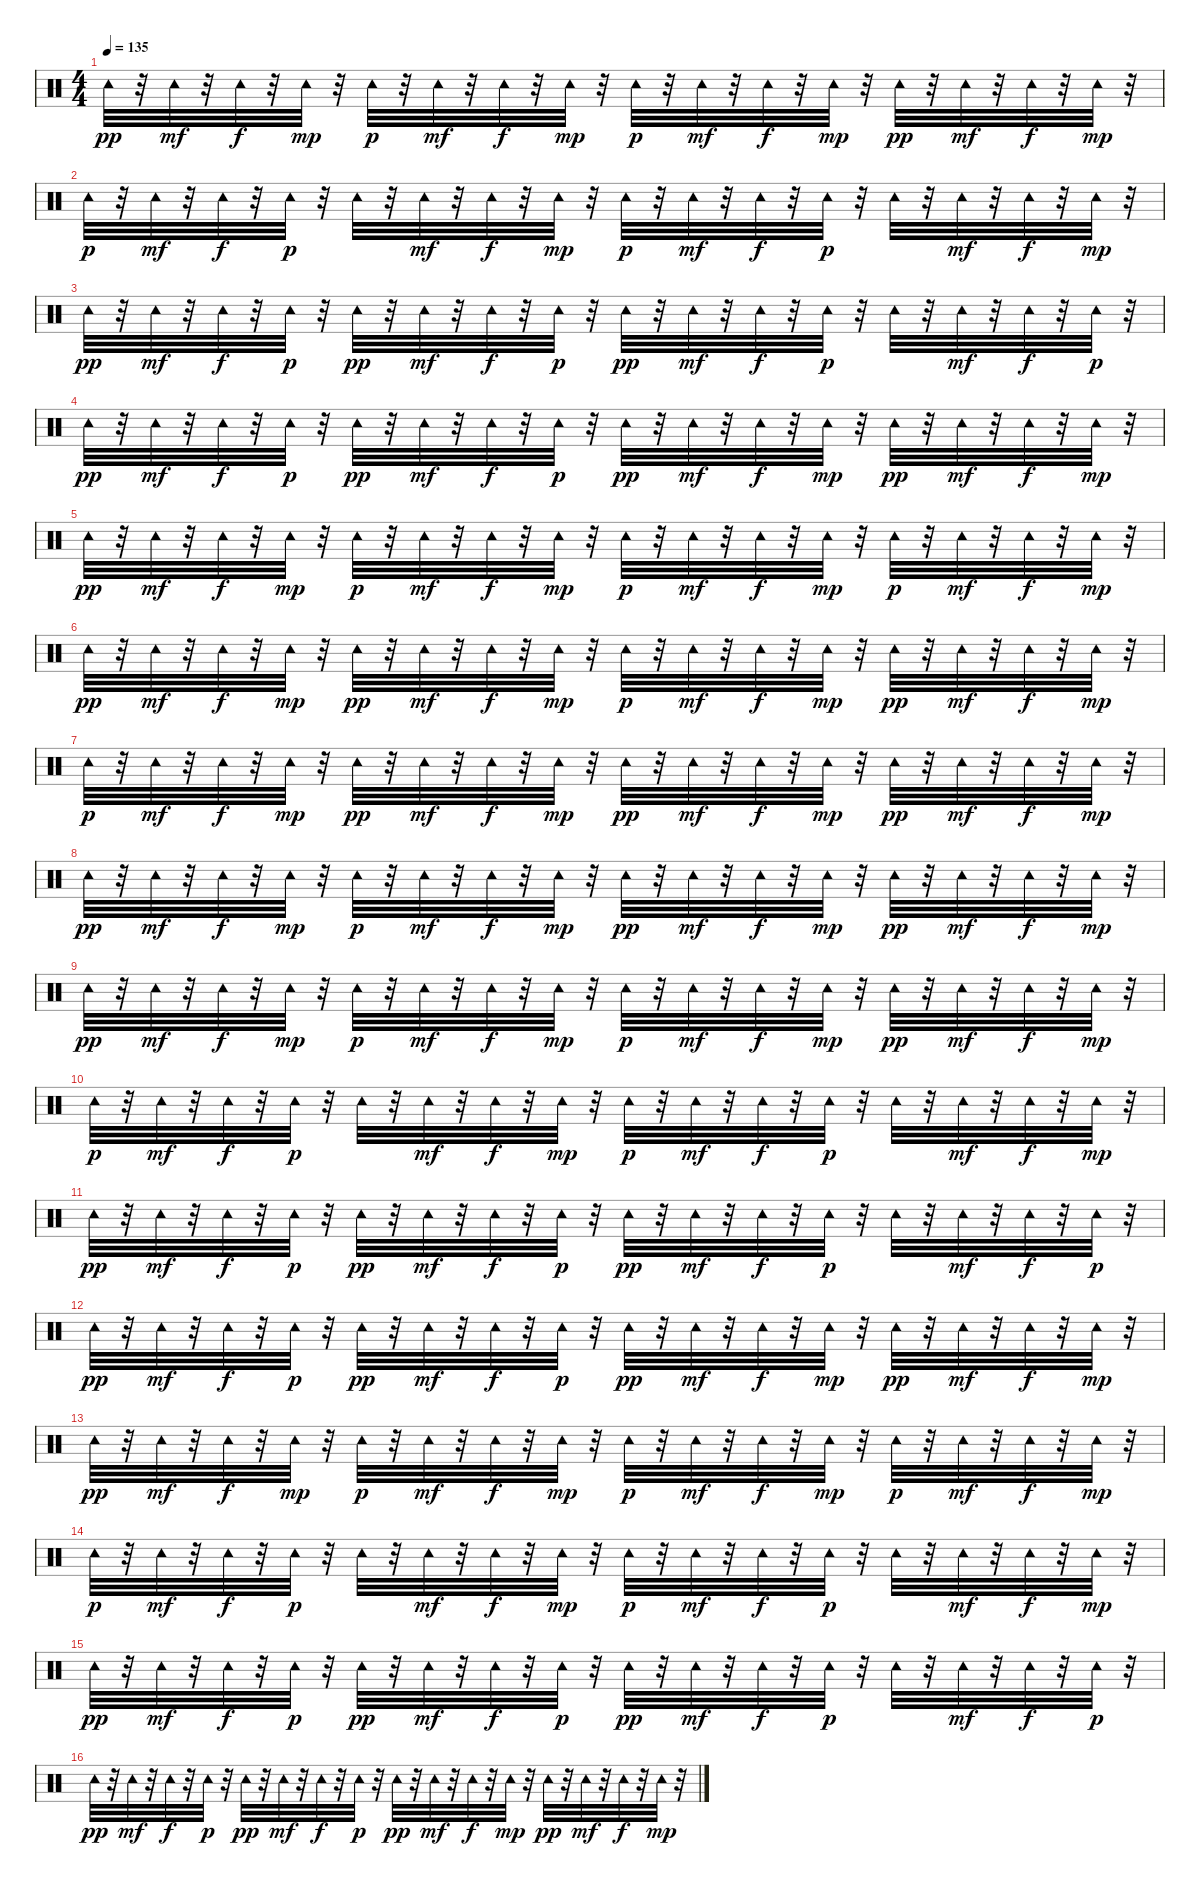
\track "" {instrument percussion}
\staff {score}
\articulation defaults
\ts (4 4)
\tempo 135
\clef neutral
\ks c "Tambourine (hit)".32{dy pp}
r.32 "Tambourine (hit)".32{dy mf} r.32 "Tambourine (hit)".32{dy f} r.32 "Tambourine (hit)".32{dy mp} r.32 "Tambourine (hit)".32{dy p} r.32 "Tambourine (hit)".32{dy mf} r.32 "Tambourine (hit)".32{dy f} r.32 "Tambourine (hit)".32{dy mp} r.32 "Tambourine (hit)".32{dy p} r.32 "Tambourine (hit)".32{dy mf} r.32 "Tambourine (hit)".32{dy f} r.32 "Tambourine (hit)".32{dy mp} r.32 "Tambourine (hit)".32{dy pp} r.32 "Tambourine (hit)".32{dy mf} r.32 "Tambourine (hit)".32{dy f} r.32 "Tambourine (hit)".32{dy mp} r.32 |
"Tambourine (hit)".32{dy p} r.32 "Tambourine (hit)".32{dy mf} r.32 "Tambourine (hit)".32{dy f} r.32 "Tambourine (hit)".32{dy p} r.32 "Tambourine (hit)".32 r.32 "Tambourine (hit)".32{dy mf} r.32 "Tambourine (hit)".32{dy f} r.32 "Tambourine (hit)".32{dy mp} r.32 "Tambourine (hit)".32{dy p} r.32 "Tambourine (hit)".32{dy mf} r.32 "Tambourine (hit)".32{dy f} r.32 "Tambourine (hit)".32{dy p} r.32 "Tambourine (hit)".32 r.32 "Tambourine (hit)".32{dy mf} r.32 "Tambourine (hit)".32{dy f} r.32 "Tambourine (hit)".32{dy mp} r.32 |
"Tambourine (hit)".32{dy pp} r.32 "Tambourine (hit)".32{dy mf} r.32 "Tambourine (hit)".32{dy f} r.32 "Tambourine (hit)".32{dy p} r.32 "Tambourine (hit)".32{dy pp} r.32 "Tambourine (hit)".32{dy mf} r.32 "Tambourine (hit)".32{dy f} r.32 "Tambourine (hit)".32{dy p} r.32 "Tambourine (hit)".32{dy pp} r.32 "Tambourine (hit)".32{dy mf} r.32 "Tambourine (hit)".32{dy f} r.32 "Tambourine (hit)".32{dy p} r.32 "Tambourine (hit)".32 r.32 "Tambourine (hit)".32{dy mf} r.32 "Tambourine (hit)".32{dy f} r.32 "Tambourine (hit)".32{dy p} r.32 |
"Tambourine (hit)".32{dy pp} r.32 "Tambourine (hit)".32{dy mf} r.32 "Tambourine (hit)".32{dy f} r.32 "Tambourine (hit)".32{dy p} r.32 "Tambourine (hit)".32{dy pp} r.32 "Tambourine (hit)".32{dy mf} r.32 "Tambourine (hit)".32{dy f} r.32 "Tambourine (hit)".32{dy p} r.32 "Tambourine (hit)".32{dy pp} r.32 "Tambourine (hit)".32{dy mf} r.32 "Tambourine (hit)".32{dy f} r.32 "Tambourine (hit)".32{dy mp} r.32 "Tambourine (hit)".32{dy pp} r.32 "Tambourine (hit)".32{dy mf} r.32 "Tambourine (hit)".32{dy f} r.32 "Tambourine (hit)".32{dy mp} r.32 |
"Tambourine (hit)".32{dy pp} r.32 "Tambourine (hit)".32{dy mf} r.32 "Tambourine (hit)".32{dy f} r.32 "Tambourine (hit)".32{dy mp} r.32 "Tambourine (hit)".32{dy p} r.32 "Tambourine (hit)".32{dy mf} r.32 "Tambourine (hit)".32{dy f} r.32 "Tambourine (hit)".32{dy mp} r.32 "Tambourine (hit)".32{dy p} r.32 "Tambourine (hit)".32{dy mf} r.32 "Tambourine (hit)".32{dy f} r.32 "Tambourine (hit)".32{dy mp} r.32 "Tambourine (hit)".32{dy p} r.32 "Tambourine (hit)".32{dy mf} r.32 "Tambourine (hit)".32{dy f} r.32 "Tambourine (hit)".32{dy mp} r.32 |
"Tambourine (hit)".32{dy pp} r.32 "Tambourine (hit)".32{dy mf} r.32 "Tambourine (hit)".32{dy f} r.32 "Tambourine (hit)".32{dy mp} r.32 "Tambourine (hit)".32{dy pp} r.32 "Tambourine (hit)".32{dy mf} r.32 "Tambourine (hit)".32{dy f} r.32 "Tambourine (hit)".32{dy mp} r.32 "Tambourine (hit)".32{dy p} r.32 "Tambourine (hit)".32{dy mf} r.32 "Tambourine (hit)".32{dy f} r.32 "Tambourine (hit)".32{dy mp} r.32 "Tambourine (hit)".32{dy pp} r.32 "Tambourine (hit)".32{dy mf} r.32 "Tambourine (hit)".32{dy f} r.32 "Tambourine (hit)".32{dy mp} r.32 |
"Tambourine (hit)".32{dy p} r.32 "Tambourine (hit)".32{dy mf} r.32 "Tambourine (hit)".32{dy f} r.32 "Tambourine (hit)".32{dy mp} r.32 "Tambourine (hit)".32{dy pp} r.32 "Tambourine (hit)".32{dy mf} r.32 "Tambourine (hit)".32{dy f} r.32 "Tambourine (hit)".32{dy mp} r.32 "Tambourine (hit)".32{dy pp} r.32 "Tambourine (hit)".32{dy mf} r.32 "Tambourine (hit)".32{dy f} r.32 "Tambourine (hit)".32{dy mp} r.32 "Tambourine (hit)".32{dy pp} r.32 "Tambourine (hit)".32{dy mf} r.32 "Tambourine (hit)".32{dy f} r.32 "Tambourine (hit)".32{dy mp} r.32 |
"Tambourine (hit)".32{dy pp} r.32 "Tambourine (hit)".32{dy mf} r.32 "Tambourine (hit)".32{dy f} r.32 "Tambourine (hit)".32{dy mp} r.32 "Tambourine (hit)".32{dy p} r.32 "Tambourine (hit)".32{dy mf} r.32 "Tambourine (hit)".32{dy f} r.32 "Tambourine (hit)".32{dy mp} r.32 "Tambourine (hit)".32{dy pp} r.32 "Tambourine (hit)".32{dy mf} r.32 "Tambourine (hit)".32{dy f} r.32 "Tambourine (hit)".32{dy mp} r.32 "Tambourine (hit)".32{dy pp} r.32 "Tambourine (hit)".32{dy mf} r.32 "Tambourine (hit)".32{dy f} r.32 "Tambourine (hit)".32{dy mp} r.32 |
"Tambourine (hit)".32{dy pp} r.32 "Tambourine (hit)".32{dy mf} r.32 "Tambourine (hit)".32{dy f} r.32 "Tambourine (hit)".32{dy mp} r.32 "Tambourine (hit)".32{dy p} r.32 "Tambourine (hit)".32{dy mf} r.32 "Tambourine (hit)".32{dy f} r.32 "Tambourine (hit)".32{dy mp} r.32 "Tambourine (hit)".32{dy p} r.32 "Tambourine (hit)".32{dy mf} r.32 "Tambourine (hit)".32{dy f} r.32 "Tambourine (hit)".32{dy mp} r.32 "Tambourine (hit)".32{dy pp} r.32 "Tambourine (hit)".32{dy mf} r.32 "Tambourine (hit)".32{dy f} r.32 "Tambourine (hit)".32{dy mp} r.32 |
"Tambourine (hit)".32{dy p} r.32 "Tambourine (hit)".32{dy mf} r.32 "Tambourine (hit)".32{dy f} r.32 "Tambourine (hit)".32{dy p} r.32 "Tambourine (hit)".32 r.32 "Tambourine (hit)".32{dy mf} r.32 "Tambourine (hit)".32{dy f} r.32 "Tambourine (hit)".32{dy mp} r.32 "Tambourine (hit)".32{dy p} r.32 "Tambourine (hit)".32{dy mf} r.32 "Tambourine (hit)".32{dy f} r.32 "Tambourine (hit)".32{dy p} r.32 "Tambourine (hit)".32 r.32 "Tambourine (hit)".32{dy mf} r.32 "Tambourine (hit)".32{dy f} r.32 "Tambourine (hit)".32{dy mp} r.32 |
"Tambourine (hit)".32{dy pp} r.32 "Tambourine (hit)".32{dy mf} r.32 "Tambourine (hit)".32{dy f} r.32 "Tambourine (hit)".32{dy p} r.32 "Tambourine (hit)".32{dy pp} r.32 "Tambourine (hit)".32{dy mf} r.32 "Tambourine (hit)".32{dy f} r.32 "Tambourine (hit)".32{dy p} r.32 "Tambourine (hit)".32{dy pp} r.32 "Tambourine (hit)".32{dy mf} r.32 "Tambourine (hit)".32{dy f} r.32 "Tambourine (hit)".32{dy p} r.32 "Tambourine (hit)".32 r.32 "Tambourine (hit)".32{dy mf} r.32 "Tambourine (hit)".32{dy f} r.32 "Tambourine (hit)".32{dy p} r.32 |
"Tambourine (hit)".32{dy pp} r.32 "Tambourine (hit)".32{dy mf} r.32 "Tambourine (hit)".32{dy f} r.32 "Tambourine (hit)".32{dy p} r.32 "Tambourine (hit)".32{dy pp} r.32 "Tambourine (hit)".32{dy mf} r.32 "Tambourine (hit)".32{dy f} r.32 "Tambourine (hit)".32{dy p} r.32 "Tambourine (hit)".32{dy pp} r.32 "Tambourine (hit)".32{dy mf} r.32 "Tambourine (hit)".32{dy f} r.32 "Tambourine (hit)".32{dy mp} r.32 "Tambourine (hit)".32{dy pp} r.32 "Tambourine (hit)".32{dy mf} r.32 "Tambourine (hit)".32{dy f} r.32 "Tambourine (hit)".32{dy mp} r.32 |
"Tambourine (hit)".32{dy pp} r.32 "Tambourine (hit)".32{dy mf} r.32 "Tambourine (hit)".32{dy f} r.32 "Tambourine (hit)".32{dy mp} r.32 "Tambourine (hit)".32{dy p} r.32 "Tambourine (hit)".32{dy mf} r.32 "Tambourine (hit)".32{dy f} r.32 "Tambourine (hit)".32{dy mp} r.32 "Tambourine (hit)".32{dy p} r.32 "Tambourine (hit)".32{dy mf} r.32 "Tambourine (hit)".32{dy f} r.32 "Tambourine (hit)".32{dy mp} r.32 "Tambourine (hit)".32{dy p} r.32 "Tambourine (hit)".32{dy mf} r.32 "Tambourine (hit)".32{dy f} r.32 "Tambourine (hit)".32{dy mp} r.32 |
"Tambourine (hit)".32{dy p} r.32 "Tambourine (hit)".32{dy mf} r.32 "Tambourine (hit)".32{dy f} r.32 "Tambourine (hit)".32{dy p} r.32 "Tambourine (hit)".32 r.32 "Tambourine (hit)".32{dy mf} r.32 "Tambourine (hit)".32{dy f} r.32 "Tambourine (hit)".32{dy mp} r.32 "Tambourine (hit)".32{dy p} r.32 "Tambourine (hit)".32{dy mf} r.32 "Tambourine (hit)".32{dy f} r.32 "Tambourine (hit)".32{dy p} r.32 "Tambourine (hit)".32 r.32 "Tambourine (hit)".32{dy mf} r.32 "Tambourine (hit)".32{dy f} r.32 "Tambourine (hit)".32{dy mp} r.32 |
"Tambourine (hit)".32{dy pp} r.32 "Tambourine (hit)".32{dy mf} r.32 "Tambourine (hit)".32{dy f} r.32 "Tambourine (hit)".32{dy p} r.32 "Tambourine (hit)".32{dy pp} r.32 "Tambourine (hit)".32{dy mf} r.32 "Tambourine (hit)".32{dy f} r.32 "Tambourine (hit)".32{dy p} r.32 "Tambourine (hit)".32{dy pp} r.32 "Tambourine (hit)".32{dy mf} r.32 "Tambourine (hit)".32{dy f} r.32 "Tambourine (hit)".32{dy p} r.32 "Tambourine (hit)".32 r.32 "Tambourine (hit)".32{dy mf} r.32 "Tambourine (hit)".32{dy f} r.32 "Tambourine (hit)".32{dy p} r.32 |
"Tambourine (hit)".32{dy pp} r.32 "Tambourine (hit)".32{dy mf} r.32 "Tambourine (hit)".32{dy f} r.32 "Tambourine (hit)".32{dy p} r.32 "Tambourine (hit)".32{dy pp} r.32 "Tambourine (hit)".32{dy mf} r.32 "Tambourine (hit)".32{dy f} r.32 "Tambourine (hit)".32{dy p} r.32 "Tambourine (hit)".32{dy pp} r.32 "Tambourine (hit)".32{dy mf} r.32 "Tambourine (hit)".32{dy f} r.32 "Tambourine (hit)".32{dy mp} r.32 "Tambourine (hit)".32{dy pp} r.32 "Tambourine (hit)".32{dy mf} r.32 "Tambourine (hit)".32{dy f} r.32 "Tambourine (hit)".32{dy mp} r.32
